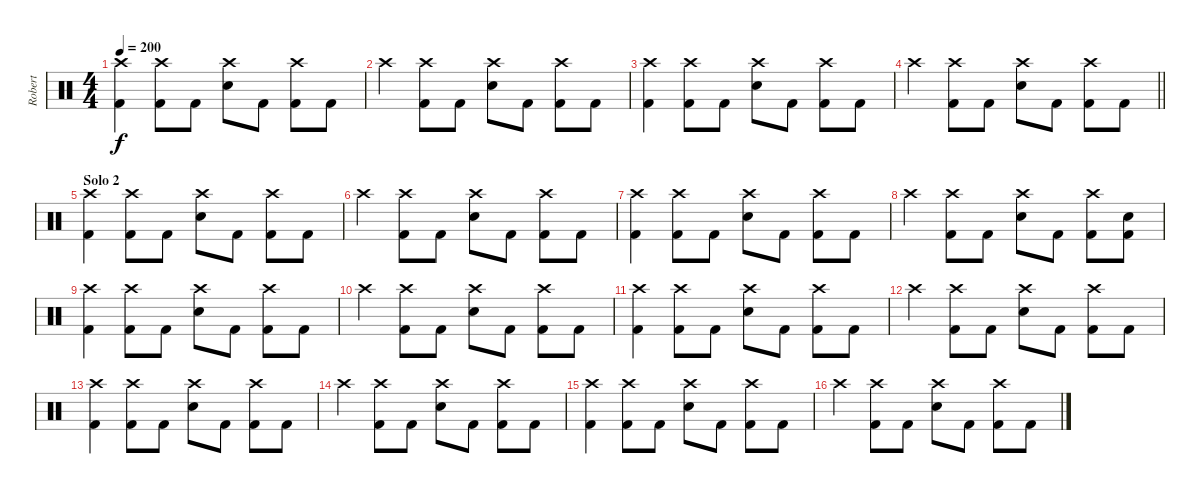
\track ("Robert" "Robert") {instrument percussion}
\staff {score}
\articulation defaults
\ts (4 4)
\tempo 200
\clef neutral
\ks c
("Crash high (hit)" "Kick (hit) 2").4{dy f} ("Crash high (hit)" "Kick (hit) 2").8 "Kick (hit) 2".8 ("Crash high (hit)" "Electric Snare (hit)").8 "Kick (hit) 2".8 ("Crash high (hit)" "Kick (hit) 2").8 "Kick (hit) 2".8 |
"Crash high (hit)".4 ("Crash high (hit)" "Kick (hit) 2").8 "Kick (hit) 2".8 ("Crash high (hit)" "Electric Snare (hit)").8 "Kick (hit) 2".8 ("Crash high (hit)" "Kick (hit) 2").8 "Kick (hit) 2".8 |
("Crash high (hit)" "Kick (hit) 2").4 ("Crash high (hit)" "Kick (hit) 2").8 "Kick (hit) 2".8 ("Crash high (hit)" "Electric Snare (hit)").8 "Kick (hit) 2".8 ("Crash high (hit)" "Kick (hit) 2").8 "Kick (hit) 2".8 |
\barLineRight lightlight "Crash high (hit)".4
("Crash high (hit)" "Kick (hit) 2").8 "Kick (hit) 2".8 ("Crash high (hit)" "Electric Snare (hit)").8 "Kick (hit) 2".8 ("Crash high (hit)" "Kick (hit) 2").8 "Kick (hit) 2".8 |
\section ("" "Solo 2")
("Crash high (hit)" "Kick (hit) 2").4 ("Crash high (hit)" "Kick (hit) 2").8 "Kick (hit) 2".8 ("Crash high (hit)" "Electric Snare (hit)").8 "Kick (hit) 2".8 ("Crash high (hit)" "Kick (hit) 2").8 "Kick (hit) 2".8 |
"Crash high (hit)".4 ("Crash high (hit)" "Kick (hit) 2").8 "Kick (hit) 2".8 ("Crash high (hit)" "Electric Snare (hit)").8 "Kick (hit) 2".8 ("Crash high (hit)" "Kick (hit) 2").8 "Kick (hit) 2".8 |
("Crash high (hit)" "Kick (hit) 2").4 ("Crash high (hit)" "Kick (hit) 2").8 "Kick (hit) 2".8 ("Crash high (hit)" "Electric Snare (hit)").8 "Kick (hit) 2".8 ("Crash high (hit)" "Kick (hit) 2").8 "Kick (hit) 2".8 |
"Crash high (hit)".4 ("Crash high (hit)" "Kick (hit) 2").8 "Kick (hit) 2".8 ("Crash high (hit)" "Electric Snare (hit)").8 "Kick (hit) 2".8 ("Crash high (hit)" "Kick (hit) 2").8 ("Electric Snare (hit)" "Kick (hit) 2").8 |
("Crash high (hit)" "Kick (hit) 2").4 ("Crash high (hit)" "Kick (hit) 2").8 "Kick (hit) 2".8 ("Crash high (hit)" "Electric Snare (hit)").8 "Kick (hit) 2".8 ("Crash high (hit)" "Kick (hit) 2").8 "Kick (hit) 2".8 |
"Crash high (hit)".4 ("Crash high (hit)" "Kick (hit) 2").8 "Kick (hit) 2".8 ("Crash high (hit)" "Electric Snare (hit)").8 "Kick (hit) 2".8 ("Crash high (hit)" "Kick (hit) 2").8 "Kick (hit) 2".8 |
("Crash high (hit)" "Kick (hit) 2").4 ("Crash high (hit)" "Kick (hit) 2").8 "Kick (hit) 2".8 ("Crash high (hit)" "Electric Snare (hit)").8 "Kick (hit) 2".8 ("Crash high (hit)" "Kick (hit) 2").8 "Kick (hit) 2".8 |
"Crash high (hit)".4 ("Crash high (hit)" "Kick (hit) 2").8 "Kick (hit) 2".8 ("Crash high (hit)" "Electric Snare (hit)").8 "Kick (hit) 2".8 ("Crash high (hit)" "Kick (hit) 2").8 "Kick (hit) 2".8 |
("Crash high (hit)" "Kick (hit) 2").4 ("Crash high (hit)" "Kick (hit) 2").8 "Kick (hit) 2".8 ("Crash high (hit)" "Electric Snare (hit)").8 "Kick (hit) 2".8 ("Crash high (hit)" "Kick (hit) 2").8 "Kick (hit) 2".8 |
"Crash high (hit)".4 ("Crash high (hit)" "Kick (hit) 2").8 "Kick (hit) 2".8 ("Crash high (hit)" "Electric Snare (hit)").8 "Kick (hit) 2".8 ("Crash high (hit)" "Kick (hit) 2").8 "Kick (hit) 2".8 |
("Crash high (hit)" "Kick (hit) 2").4 ("Crash high (hit)" "Kick (hit) 2").8 "Kick (hit) 2".8 ("Crash high (hit)" "Electric Snare (hit)").8 "Kick (hit) 2".8 ("Crash high (hit)" "Kick (hit) 2").8 "Kick (hit) 2".8 |
"Crash high (hit)".4 ("Crash high (hit)" "Kick (hit) 2").8 "Kick (hit) 2".8 ("Crash high (hit)" "Electric Snare (hit)").8 "Kick (hit) 2".8 ("Crash high (hit)" "Kick (hit) 2").8 "Kick (hit) 2".8
